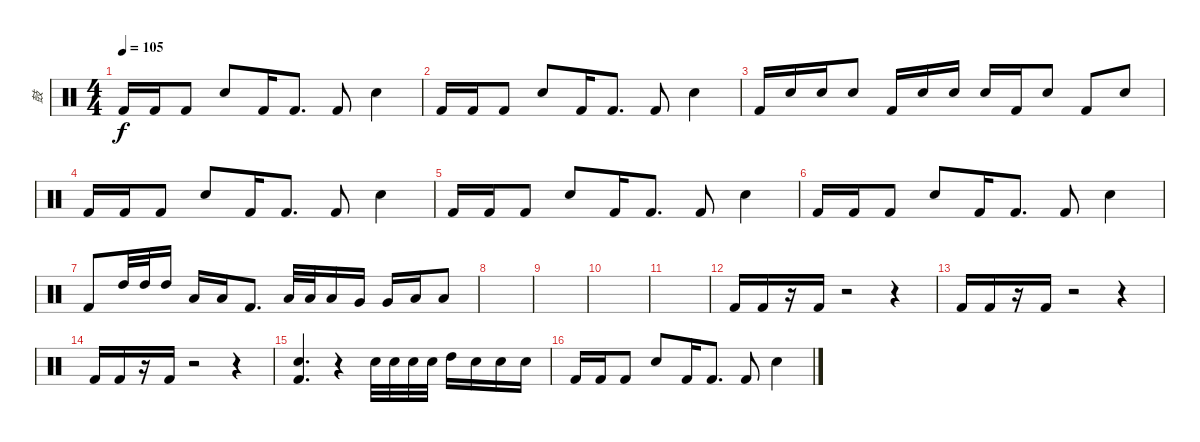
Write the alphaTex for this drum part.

\track ("鼓" "鼓") {instrument percussion}
\staff {score}
\articulation defaults
\ts (4 4)
\tempo 105
\clef neutral
\ks c "Kick (hit) 2".16{dy f} "Kick (hit) 2".16 "Kick (hit) 2".8 "Electric Snare (hit)".8 "Kick (hit) 2".16 "Kick (hit) 2".8{d} "Kick (hit) 2".8 "Electric Snare (hit)".4
|
"Kick (hit) 2".16 "Kick (hit) 2".16 "Kick (hit) 2".8 "Electric Snare (hit)".8 "Kick (hit) 2".16 "Kick (hit) 2".8{d} "Kick (hit) 2".8 "Electric Snare (hit)".4 |
"Kick (hit) 2".16 "Electric Snare (hit)".16 "Electric Snare (hit)".16 "Electric Snare (hit)".8 "Kick (hit) 2".16 "Electric Snare (hit)".16 "Electric Snare (hit)".16 "Electric Snare (hit)".16 "Kick (hit) 2".16 "Electric Snare (hit)".8 "Kick (hit) 2".8 "Electric Snare (hit)".8 |
"Kick (hit) 2".16 "Kick (hit) 2".16 "Kick (hit) 2".8 "Electric Snare (hit)".8 "Kick (hit) 2".16 "Kick (hit) 2".8{d} "Kick (hit) 2".8 "Electric Snare (hit)".4 |
"Kick (hit) 2".16 "Kick (hit) 2".16 "Kick (hit) 2".8 "Electric Snare (hit)".8 "Kick (hit) 2".16 "Kick (hit) 2".8{d} "Kick (hit) 2".8 "Electric Snare (hit)".4 |
"Kick (hit) 2".16 "Kick (hit) 2".16 "Kick (hit) 2".8 "Electric Snare (hit)".8 "Kick (hit) 2".16 "Kick (hit) 2".8{d} "Kick (hit) 2".8 "Electric Snare (hit)".4 |
"Kick (hit) 2".8 "High Tom (hit)".32 "High Tom (hit)".32 "High Tom (hit)".16 "Low Tom (hit)".16 "Low Tom (hit)".16 "Kick (hit) 2".8{d} "Low Tom (hit)".32 "Low Tom (hit)".32 "Low Tom (hit)".16 "Very Low Tom (hit)".16 "Very Low Tom (hit)".16 "Low Floor Tom (hit)".16 "Low Floor Tom (hit)".8 |
|
|
|
|
"Kick (hit) 2".16 "Kick (hit) 2".16 r.16 "Kick (hit) 2".16 r.2 r.4 |
"Kick (hit) 2".16 "Kick (hit) 2".16 r.16 "Kick (hit) 2".16 r.2 r.4 |
"Kick (hit) 2".16 "Kick (hit) 2".16 r.16 "Kick (hit) 2".16 r.2 r.4 |
("Kick (hit) 2" "Electric Snare (hit)").4{d} r.4 "Electric Snare (hit)".32 "Electric Snare (hit)".32 "Electric Snare (hit)".32 "Electric Snare (hit)".32 "High Tom (hit)".16 "Electric Snare (hit)".16 "Electric Snare (hit)".16 "Electric Snare (hit)".16 |
"Kick (hit) 2".16 "Kick (hit) 2".16 "Kick (hit) 2".8 "Electric Snare (hit)".8 "Kick (hit) 2".16 "Kick (hit) 2".8{d} "Kick (hit) 2".8 "Electric Snare (hit)".4
